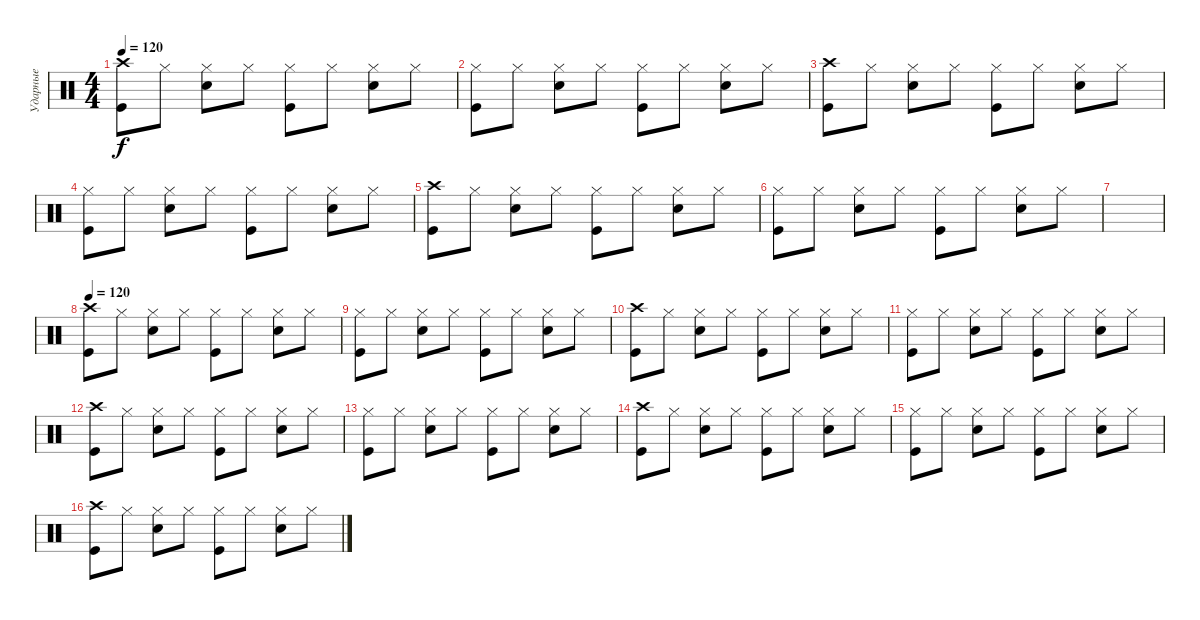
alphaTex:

\track ("Ударные" "Ударные") {instrument percussion}
\staff {score}
\articulation defaults
\ts (4 4)
\tempo 120
\clef neutral
\ks c
("Crash high (hit)" "Kick (hit)").8{dy f} "Hi-Hat (closed)".8 ("Hi-Hat (closed)" "Electric Snare (hit)").8 "Hi-Hat (closed)".8 ("Hi-Hat (closed)" "Kick (hit)").8 "Hi-Hat (closed)".8 ("Hi-Hat (closed)" "Electric Snare (hit)").8 "Hi-Hat (closed)".8 |
("Hi-Hat (closed)" "Kick (hit)").8 "Hi-Hat (closed)".8 ("Hi-Hat (closed)" "Electric Snare (hit)").8 "Hi-Hat (closed)".8 ("Hi-Hat (closed)" "Kick (hit)").8 "Hi-Hat (closed)".8 ("Hi-Hat (closed)" "Electric Snare (hit)").8 "Hi-Hat (closed)".8 |
("Crash high (hit)" "Kick (hit)").8 "Hi-Hat (closed)".8 ("Hi-Hat (closed)" "Electric Snare (hit)").8 "Hi-Hat (closed)".8 ("Hi-Hat (closed)" "Kick (hit)").8 "Hi-Hat (closed)".8 ("Hi-Hat (closed)" "Electric Snare (hit)").8 "Hi-Hat (closed)".8 |
("Hi-Hat (closed)" "Kick (hit)").8 "Hi-Hat (closed)".8 ("Hi-Hat (closed)" "Electric Snare (hit)").8 "Hi-Hat (closed)".8 ("Hi-Hat (closed)" "Kick (hit)").8 "Hi-Hat (closed)".8 ("Hi-Hat (closed)" "Electric Snare (hit)").8 "Hi-Hat (closed)".8 |
("Crash high (hit)" "Kick (hit)").8 "Hi-Hat (closed)".8 ("Hi-Hat (closed)" "Electric Snare (hit)").8 "Hi-Hat (closed)".8 ("Hi-Hat (closed)" "Kick (hit)").8 "Hi-Hat (closed)".8 ("Hi-Hat (closed)" "Electric Snare (hit)").8 "Hi-Hat (closed)".8 |
("Hi-Hat (closed)" "Kick (hit)").8 "Hi-Hat (closed)".8 ("Hi-Hat (closed)" "Electric Snare (hit)").8 "Hi-Hat (closed)".8 ("Hi-Hat (closed)" "Kick (hit)").8 "Hi-Hat (closed)".8 ("Hi-Hat (closed)" "Electric Snare (hit)").8 "Hi-Hat (closed)".8 |
|
\tempo 120
("Crash high (hit)" "Kick (hit)").8 "Hi-Hat (closed)".8 ("Hi-Hat (closed)" "Electric Snare (hit)").8 "Hi-Hat (closed)".8 ("Hi-Hat (closed)" "Kick (hit)").8 "Hi-Hat (closed)".8 ("Hi-Hat (closed)" "Electric Snare (hit)").8 "Hi-Hat (closed)".8 |
("Hi-Hat (closed)" "Kick (hit)").8 "Hi-Hat (closed)".8 ("Hi-Hat (closed)" "Electric Snare (hit)").8 "Hi-Hat (closed)".8 ("Hi-Hat (closed)" "Kick (hit)").8 "Hi-Hat (closed)".8 ("Hi-Hat (closed)" "Electric Snare (hit)").8 "Hi-Hat (closed)".8 |
("Crash high (hit)" "Kick (hit)").8 "Hi-Hat (closed)".8 ("Hi-Hat (closed)" "Electric Snare (hit)").8 "Hi-Hat (closed)".8 ("Hi-Hat (closed)" "Kick (hit)").8 "Hi-Hat (closed)".8 ("Hi-Hat (closed)" "Electric Snare (hit)").8 "Hi-Hat (closed)".8 |
("Hi-Hat (closed)" "Kick (hit)").8 "Hi-Hat (closed)".8 ("Hi-Hat (closed)" "Electric Snare (hit)").8 "Hi-Hat (closed)".8 ("Hi-Hat (closed)" "Kick (hit)").8 "Hi-Hat (closed)".8 ("Hi-Hat (closed)" "Electric Snare (hit)").8 "Hi-Hat (closed)".8 |
("Crash high (hit)" "Kick (hit)").8 "Hi-Hat (closed)".8 ("Hi-Hat (closed)" "Electric Snare (hit)").8 "Hi-Hat (closed)".8 ("Hi-Hat (closed)" "Kick (hit)").8 "Hi-Hat (closed)".8 ("Hi-Hat (closed)" "Electric Snare (hit)").8 "Hi-Hat (closed)".8 |
("Hi-Hat (closed)" "Kick (hit)").8 "Hi-Hat (closed)".8 ("Hi-Hat (closed)" "Electric Snare (hit)").8 "Hi-Hat (closed)".8 ("Hi-Hat (closed)" "Kick (hit)").8 "Hi-Hat (closed)".8 ("Hi-Hat (closed)" "Electric Snare (hit)").8 "Hi-Hat (closed)".8 |
("Crash high (hit)" "Kick (hit)").8 "Hi-Hat (closed)".8 ("Hi-Hat (closed)" "Electric Snare (hit)").8 "Hi-Hat (closed)".8 ("Hi-Hat (closed)" "Kick (hit)").8 "Hi-Hat (closed)".8 ("Hi-Hat (closed)" "Electric Snare (hit)").8 "Hi-Hat (closed)".8 |
("Hi-Hat (closed)" "Kick (hit)").8 "Hi-Hat (closed)".8 ("Hi-Hat (closed)" "Electric Snare (hit)").8 "Hi-Hat (closed)".8 ("Hi-Hat (closed)" "Kick (hit)").8 "Hi-Hat (closed)".8 ("Hi-Hat (closed)" "Electric Snare (hit)").8 "Hi-Hat (closed)".8 |
("Crash high (hit)" "Kick (hit)").8 "Hi-Hat (closed)".8 ("Hi-Hat (closed)" "Electric Snare (hit)").8 "Hi-Hat (closed)".8 ("Hi-Hat (closed)" "Kick (hit)").8 "Hi-Hat (closed)".8 ("Hi-Hat (closed)" "Electric Snare (hit)").8 "Hi-Hat (closed)".8
